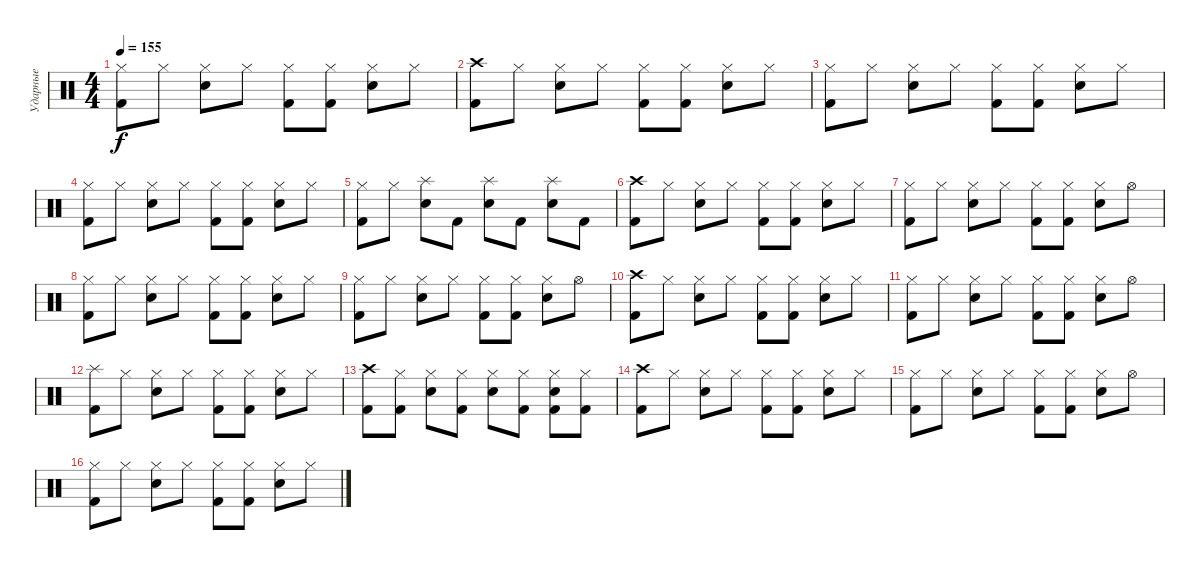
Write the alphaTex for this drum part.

\track ("Ударные" "Ударные") {instrument percussion}
\staff {score}
\articulation defaults
\ts (4 4)
\tempo 155
\clef neutral
\ks c
("Hi-Hat (closed)" "Kick (hit) 2").8{dy f} "Hi-Hat (closed)".8 ("Hi-Hat (closed)" "Electric Snare (hit)").8 "Hi-Hat (closed)".8 ("Hi-Hat (closed)" "Kick (hit) 2").8 ("Hi-Hat (closed)" "Kick (hit) 2").8 ("Hi-Hat (closed)" "Electric Snare (hit)").8 "Hi-Hat (closed)".8 |
("Crash high (hit)" "Kick (hit) 2").8 "Hi-Hat (closed)".8 ("Hi-Hat (closed)" "Electric Snare (hit)").8 "Hi-Hat (closed)".8 ("Hi-Hat (closed)" "Kick (hit) 2").8 ("Hi-Hat (closed)" "Kick (hit) 2").8 ("Hi-Hat (closed)" "Electric Snare (hit)").8 "Hi-Hat (closed)".8 |
("Hi-Hat (closed)" "Kick (hit) 2").8 "Hi-Hat (closed)".8 ("Hi-Hat (closed)" "Electric Snare (hit)").8 "Hi-Hat (closed)".8 ("Hi-Hat (closed)" "Kick (hit) 2").8 ("Hi-Hat (closed)" "Kick (hit) 2").8 ("Hi-Hat (closed)" "Electric Snare (hit)").8 "Hi-Hat (closed)".8 |
("Hi-Hat (closed)" "Kick (hit) 2").8 "Hi-Hat (closed)".8 ("Hi-Hat (closed)" "Electric Snare (hit)").8 "Hi-Hat (closed)".8 ("Hi-Hat (closed)" "Kick (hit) 2").8 ("Hi-Hat (closed)" "Kick (hit) 2").8 ("Hi-Hat (closed)" "Electric Snare (hit)").8 "Hi-Hat (closed)".8 |
("Hi-Hat (closed)" "Kick (hit) 2").8 "Hi-Hat (closed)".8 ("Splash (hit)" "Electric Snare (hit)").8 "Kick (hit) 2".8 ("Splash (hit)" "Electric Snare (hit)").8 "Kick (hit) 2".8 ("Splash (hit)" "Electric Snare (hit)").8 "Kick (hit) 2".8 |
("Crash high (hit)" "Kick (hit) 2").8 "Hi-Hat (closed)".8 ("Hi-Hat (closed)" "Electric Snare (hit)").8 "Hi-Hat (closed)".8 ("Hi-Hat (closed)" "Kick (hit) 2").8 ("Hi-Hat (closed)" "Kick (hit) 2").8 ("Hi-Hat (closed)" "Electric Snare (hit)").8 "Hi-Hat (closed)".8 |
("Hi-Hat (closed)" "Kick (hit) 2").8 "Hi-Hat (closed)".8 ("Hi-Hat (closed)" "Electric Snare (hit)").8 "Hi-Hat (closed)".8 ("Hi-Hat (closed)" "Kick (hit) 2").8 ("Hi-Hat (closed)" "Kick (hit) 2").8 ("Hi-Hat (closed)" "Electric Snare (hit)").8 "Hi-Hat (open)".8 |
("Hi-Hat (closed)" "Kick (hit) 2").8 "Hi-Hat (closed)".8 ("Hi-Hat (closed)" "Electric Snare (hit)").8 "Hi-Hat (closed)".8 ("Hi-Hat (closed)" "Kick (hit) 2").8 ("Hi-Hat (closed)" "Kick (hit) 2").8 ("Hi-Hat (closed)" "Electric Snare (hit)").8 "Hi-Hat (closed)".8 |
("Hi-Hat (closed)" "Kick (hit) 2").8 "Hi-Hat (closed)".8 ("Hi-Hat (closed)" "Electric Snare (hit)").8 "Hi-Hat (closed)".8 ("Hi-Hat (closed)" "Kick (hit) 2").8 ("Hi-Hat (closed)" "Kick (hit) 2").8 ("Hi-Hat (closed)" "Electric Snare (hit)").8 "Hi-Hat (open)".8 |
("Crash high (hit)" "Kick (hit) 2").8 "Hi-Hat (closed)".8 ("Hi-Hat (closed)" "Electric Snare (hit)").8 "Hi-Hat (closed)".8 ("Hi-Hat (closed)" "Kick (hit) 2").8 ("Hi-Hat (closed)" "Kick (hit) 2").8 ("Hi-Hat (closed)" "Electric Snare (hit)").8 "Hi-Hat (closed)".8 |
("Hi-Hat (closed)" "Kick (hit) 2").8 "Hi-Hat (closed)".8 ("Hi-Hat (closed)" "Electric Snare (hit)").8 "Hi-Hat (closed)".8 ("Hi-Hat (closed)" "Kick (hit) 2").8 ("Hi-Hat (closed)" "Kick (hit) 2").8 ("Hi-Hat (closed)" "Electric Snare (hit)").8 "Hi-Hat (open)".8 |
("Splash (hit)" "Kick (hit) 2").8 "Hi-Hat (closed)".8 ("Hi-Hat (closed)" "Electric Snare (hit)").8 "Hi-Hat (closed)".8 ("Hi-Hat (closed)" "Kick (hit) 2").8 ("Hi-Hat (closed)" "Kick (hit) 2").8 ("Hi-Hat (closed)" "Electric Snare (hit)").8 "Hi-Hat (closed)".8 |
("Crash high (hit)" "Kick (hit) 2").8 ("Hi-Hat (closed)" "Kick (hit) 2").8 ("Hi-Hat (closed)" "Electric Snare (hit)").8 ("Hi-Hat (closed)" "Kick (hit) 2").8 ("Hi-Hat (closed)" "Electric Snare (hit)").8 ("Hi-Hat (closed)" "Kick (hit) 2").8 ("Hi-Hat (closed)" "Electric Snare (hit)" "Kick (hit) 2").8 ("Hi-Hat (closed)" "Kick (hit) 2").8 |
("Crash high (hit)" "Kick (hit) 2").8 "Hi-Hat (closed)".8 ("Hi-Hat (closed)" "Electric Snare (hit)").8 "Hi-Hat (closed)".8 ("Hi-Hat (closed)" "Kick (hit) 2").8 ("Hi-Hat (closed)" "Kick (hit) 2").8 ("Hi-Hat (closed)" "Electric Snare (hit)").8 "Hi-Hat (closed)".8 |
("Hi-Hat (closed)" "Kick (hit) 2").8 "Hi-Hat (closed)".8 ("Hi-Hat (closed)" "Electric Snare (hit)").8 "Hi-Hat (closed)".8 ("Hi-Hat (closed)" "Kick (hit) 2").8 ("Hi-Hat (closed)" "Kick (hit) 2").8 ("Hi-Hat (closed)" "Electric Snare (hit)").8 "Hi-Hat (open)".8 |
("Hi-Hat (closed)" "Kick (hit) 2").8 "Hi-Hat (closed)".8 ("Hi-Hat (closed)" "Electric Snare (hit)").8 "Hi-Hat (closed)".8 ("Hi-Hat (closed)" "Kick (hit) 2").8 ("Hi-Hat (closed)" "Kick (hit) 2").8 ("Hi-Hat (closed)" "Electric Snare (hit)").8 "Hi-Hat (closed)".8
